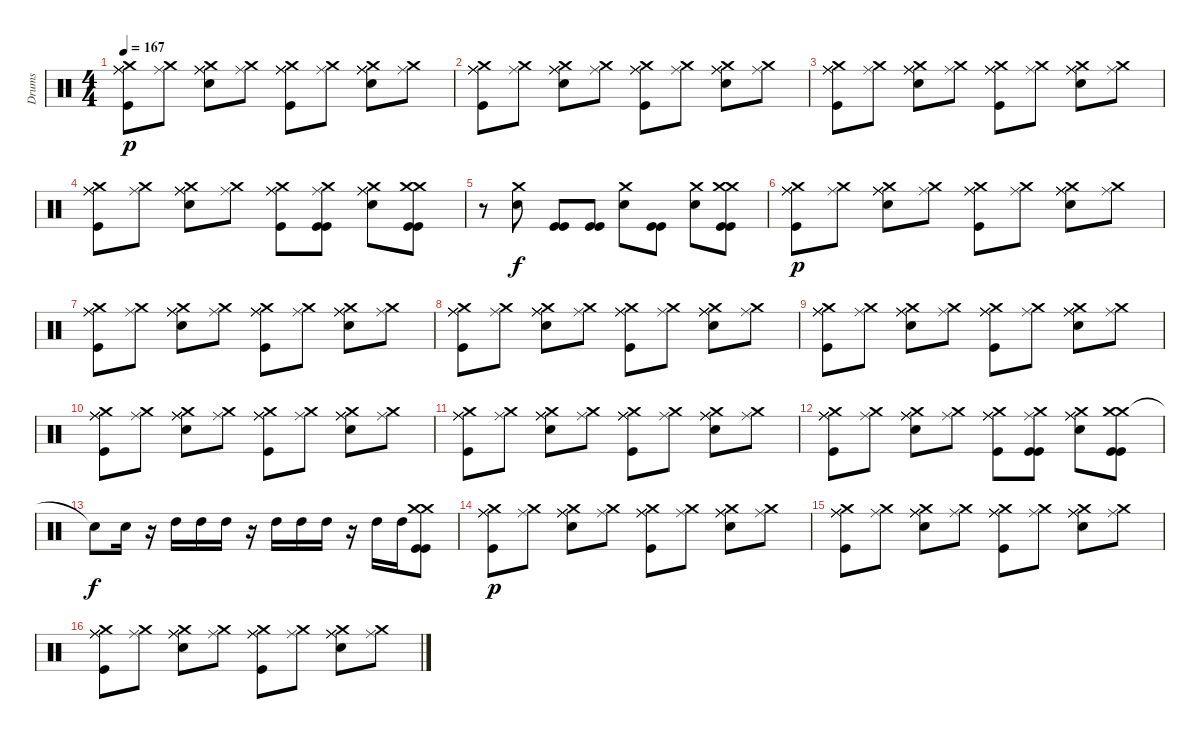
\track ("Drums" "Drums") {instrument percussion}
\staff {score}
\articulation defaults
\ts (4 4)
\tempo 167
\clef neutral
\ks c
("Ride (middle)" "Crash medium (hit)" "Ride (middle)" "Ride (middle)" "Kick (hit)").8{dy p} ("Ride (middle)" "Crash medium (hit)").8 ("Ride (middle)" "Crash medium (hit)" "Snare (hit) 2" "Ride (middle)" "Ride (middle)").8 ("Ride (middle)" "Crash medium (hit)").8 ("Ride (middle)" "Crash medium (hit)" "Ride (middle)" "Ride (middle)" "Kick (hit)").8 ("Ride (middle)" "Crash medium (hit)").8 ("Ride (middle)" "Crash medium (hit)" "Snare (hit) 2" "Ride (middle)" "Ride (middle)").8 ("Ride (middle)" "Crash medium (hit)").8 |
("Ride (middle)" "Crash medium (hit)" "Ride (middle)" "Ride (middle)" "Kick (hit)").8 ("Ride (middle)" "Crash medium (hit)").8 ("Ride (middle)" "Crash medium (hit)" "Snare (hit) 2" "Ride (middle)" "Ride (middle)").8 ("Ride (middle)" "Crash medium (hit)").8 ("Ride (middle)" "Crash medium (hit)" "Ride (middle)" "Ride (middle)" "Kick (hit)").8 ("Ride (middle)" "Crash medium (hit)").8 ("Ride (middle)" "Crash medium (hit)" "Snare (hit) 2" "Ride (middle)" "Ride (middle)").8 ("Ride (middle)" "Crash medium (hit)").8 |
("Ride (middle)" "Crash medium (hit)" "Ride (middle)" "Ride (middle)" "Kick (hit)").8 ("Ride (middle)" "Crash medium (hit)").8 ("Ride (middle)" "Crash medium (hit)" "Snare (hit) 2" "Ride (middle)" "Ride (middle)").8 ("Ride (middle)" "Crash medium (hit)").8 ("Ride (middle)" "Crash medium (hit)" "Ride (middle)" "Ride (middle)" "Kick (hit)").8 ("Ride (middle)" "Crash medium (hit)").8 ("Ride (middle)" "Crash medium (hit)" "Snare (hit) 2" "Ride (middle)" "Ride (middle)").8 ("Ride (middle)" "Crash medium (hit)").8 |
("Ride (middle)" "Crash medium (hit)" "Ride (middle)" "Ride (middle)" "Kick (hit)").8 ("Ride (middle)" "Crash medium (hit)").8 ("Ride (middle)" "Crash medium (hit)" "Snare (hit) 2" "Ride (middle)" "Ride (middle)").8 ("Ride (middle)" "Crash medium (hit)").8 ("Ride (middle)" "Crash medium (hit)" "Ride (middle)" "Ride (middle)" "Kick (hit)").8 ("Ride (middle)" "Crash medium (hit)" "Kick (hit)" "Kick (hit)").8 ("Ride (middle)" "Crash medium (hit)" "Snare (hit) 2" "Ride (middle)" "Ride (middle)").8 ("Crash medium (hit)" "Crash medium (hit)" "Kick (hit)" "Kick (hit)").8 |
r.8 ("Crash medium (hit)" "Snare (hit) 2").8{dy f} ("Kick (hit)" "Kick (hit)").8 ("Kick (hit)" "Kick (hit)").8 ("Crash medium (hit)" "Snare (hit) 2").8 ("Kick (hit)" "Kick (hit)").8 ("Crash medium (hit)" "Snare (hit) 2").8 ("Crash medium (hit)" "Crash medium (hit)" "Kick (hit)" "Kick (hit)").8 |
("Ride (middle)" "Crash medium (hit)" "Ride (middle)" "Ride (middle)" "Kick (hit)").8{dy p} ("Ride (middle)" "Crash medium (hit)").8 ("Ride (middle)" "Crash medium (hit)" "Snare (hit) 2" "Ride (middle)" "Ride (middle)").8 ("Ride (middle)" "Crash medium (hit)").8 ("Ride (middle)" "Crash medium (hit)" "Ride (middle)" "Ride (middle)" "Kick (hit)").8 ("Ride (middle)" "Crash medium (hit)").8 ("Ride (middle)" "Crash medium (hit)" "Snare (hit) 2" "Ride (middle)" "Ride (middle)").8 ("Ride (middle)" "Crash medium (hit)").8 |
("Ride (middle)" "Crash medium (hit)" "Ride (middle)" "Ride (middle)" "Kick (hit)").8 ("Ride (middle)" "Crash medium (hit)").8 ("Ride (middle)" "Crash medium (hit)" "Snare (hit) 2" "Ride (middle)" "Ride (middle)").8 ("Ride (middle)" "Crash medium (hit)").8 ("Ride (middle)" "Crash medium (hit)" "Ride (middle)" "Ride (middle)" "Kick (hit)").8 ("Ride (middle)" "Crash medium (hit)").8 ("Ride (middle)" "Crash medium (hit)" "Snare (hit) 2" "Ride (middle)" "Ride (middle)").8 ("Ride (middle)" "Crash medium (hit)").8 |
("Ride (middle)" "Crash medium (hit)" "Ride (middle)" "Ride (middle)" "Kick (hit)").8 ("Ride (middle)" "Crash medium (hit)").8 ("Ride (middle)" "Crash medium (hit)" "Snare (hit) 2" "Ride (middle)" "Ride (middle)").8 ("Ride (middle)" "Crash medium (hit)").8 ("Ride (middle)" "Crash medium (hit)" "Ride (middle)" "Ride (middle)" "Kick (hit)").8 ("Ride (middle)" "Crash medium (hit)").8 ("Ride (middle)" "Crash medium (hit)" "Snare (hit) 2" "Ride (middle)" "Ride (middle)").8 ("Ride (middle)" "Crash medium (hit)").8 |
("Ride (middle)" "Crash medium (hit)" "Ride (middle)" "Ride (middle)" "Kick (hit)").8 ("Ride (middle)" "Crash medium (hit)").8 ("Ride (middle)" "Crash medium (hit)" "Snare (hit) 2" "Ride (middle)" "Ride (middle)").8 ("Ride (middle)" "Crash medium (hit)").8 ("Ride (middle)" "Crash medium (hit)" "Ride (middle)" "Ride (middle)" "Kick (hit)").8 ("Ride (middle)" "Crash medium (hit)").8 ("Ride (middle)" "Crash medium (hit)" "Snare (hit) 2" "Ride (middle)" "Ride (middle)").8 ("Ride (middle)" "Crash medium (hit)").8 |
("Ride (middle)" "Crash medium (hit)" "Ride (middle)" "Ride (middle)" "Kick (hit)").8 ("Ride (middle)" "Crash medium (hit)").8 ("Ride (middle)" "Crash medium (hit)" "Snare (hit) 2" "Ride (middle)" "Ride (middle)").8 ("Ride (middle)" "Crash medium (hit)").8 ("Ride (middle)" "Crash medium (hit)" "Ride (middle)" "Ride (middle)" "Kick (hit)").8 ("Ride (middle)" "Crash medium (hit)").8 ("Ride (middle)" "Crash medium (hit)" "Snare (hit) 2" "Ride (middle)" "Ride (middle)").8 ("Ride (middle)" "Crash medium (hit)").8 |
("Ride (middle)" "Crash medium (hit)" "Ride (middle)" "Ride (middle)" "Kick (hit)").8 ("Ride (middle)" "Crash medium (hit)").8 ("Ride (middle)" "Crash medium (hit)" "Snare (hit) 2" "Ride (middle)" "Ride (middle)").8 ("Ride (middle)" "Crash medium (hit)").8 ("Ride (middle)" "Crash medium (hit)" "Ride (middle)" "Ride (middle)" "Kick (hit)").8 ("Ride (middle)" "Crash medium (hit)").8 ("Ride (middle)" "Crash medium (hit)" "Snare (hit) 2" "Ride (middle)" "Ride (middle)").8 ("Ride (middle)" "Crash medium (hit)").8 |
("Ride (middle)" "Crash medium (hit)" "Ride (middle)" "Ride (middle)" "Kick (hit)").8 ("Ride (middle)" "Crash medium (hit)").8 ("Ride (middle)" "Crash medium (hit)" "Snare (hit) 2" "Ride (middle)" "Ride (middle)").8 ("Ride (middle)" "Crash medium (hit)").8 ("Ride (middle)" "Crash medium (hit)" "Ride (middle)" "Ride (middle)" "Kick (hit)").8 ("Ride (middle)" "Crash medium (hit)" "Kick (hit)" "Kick (hit)").8 ("Ride (middle)" "Crash medium (hit)" "Snare (hit) 2" "Ride (middle)" "Ride (middle)").8 ("Crash medium (hit)" "Crash medium (hit)" "Kick (hit)" "Kick (hit)").8 |
"Snare (hit)"{t}.8{dy f} "Snare (hit) 2".16 r.16 "High Tom (hit)".16 "High Tom (hit)".16 "High Tom (hit)".16 r.16 "High Tom (hit)".16 "High Tom (hit)".16 "High Tom (hit)".16 r.16 "High Tom (hit)".16 "High Tom (hit)".16 ("Crash medium (hit)" "Crash medium (hit)" "Kick (hit)" "Kick (hit)").8 |
("Ride (middle)" "Crash medium (hit)" "Ride (middle)" "Ride (middle)" "Kick (hit)").8{dy p} ("Ride (middle)" "Crash medium (hit)").8 ("Ride (middle)" "Crash medium (hit)" "Snare (hit) 2" "Ride (middle)" "Ride (middle)").8 ("Ride (middle)" "Crash medium (hit)").8 ("Ride (middle)" "Crash medium (hit)" "Ride (middle)" "Ride (middle)" "Kick (hit)").8 ("Ride (middle)" "Crash medium (hit)").8 ("Ride (middle)" "Crash medium (hit)" "Snare (hit) 2" "Ride (middle)" "Ride (middle)").8 ("Ride (middle)" "Crash medium (hit)").8 |
("Ride (middle)" "Crash medium (hit)" "Ride (middle)" "Ride (middle)" "Kick (hit)").8 ("Ride (middle)" "Crash medium (hit)").8 ("Ride (middle)" "Crash medium (hit)" "Snare (hit) 2" "Ride (middle)" "Ride (middle)").8 ("Ride (middle)" "Crash medium (hit)").8 ("Ride (middle)" "Crash medium (hit)" "Ride (middle)" "Ride (middle)" "Kick (hit)").8 ("Ride (middle)" "Crash medium (hit)").8 ("Ride (middle)" "Crash medium (hit)" "Snare (hit) 2" "Ride (middle)" "Ride (middle)").8 ("Ride (middle)" "Crash medium (hit)").8 |
("Ride (middle)" "Crash medium (hit)" "Ride (middle)" "Ride (middle)" "Kick (hit)").8 ("Ride (middle)" "Crash medium (hit)").8 ("Ride (middle)" "Crash medium (hit)" "Snare (hit) 2" "Ride (middle)" "Ride (middle)").8 ("Ride (middle)" "Crash medium (hit)").8 ("Ride (middle)" "Crash medium (hit)" "Ride (middle)" "Ride (middle)" "Kick (hit)").8 ("Ride (middle)" "Crash medium (hit)").8 ("Ride (middle)" "Crash medium (hit)" "Snare (hit) 2" "Ride (middle)" "Ride (middle)").8 ("Ride (middle)" "Crash medium (hit)").8
